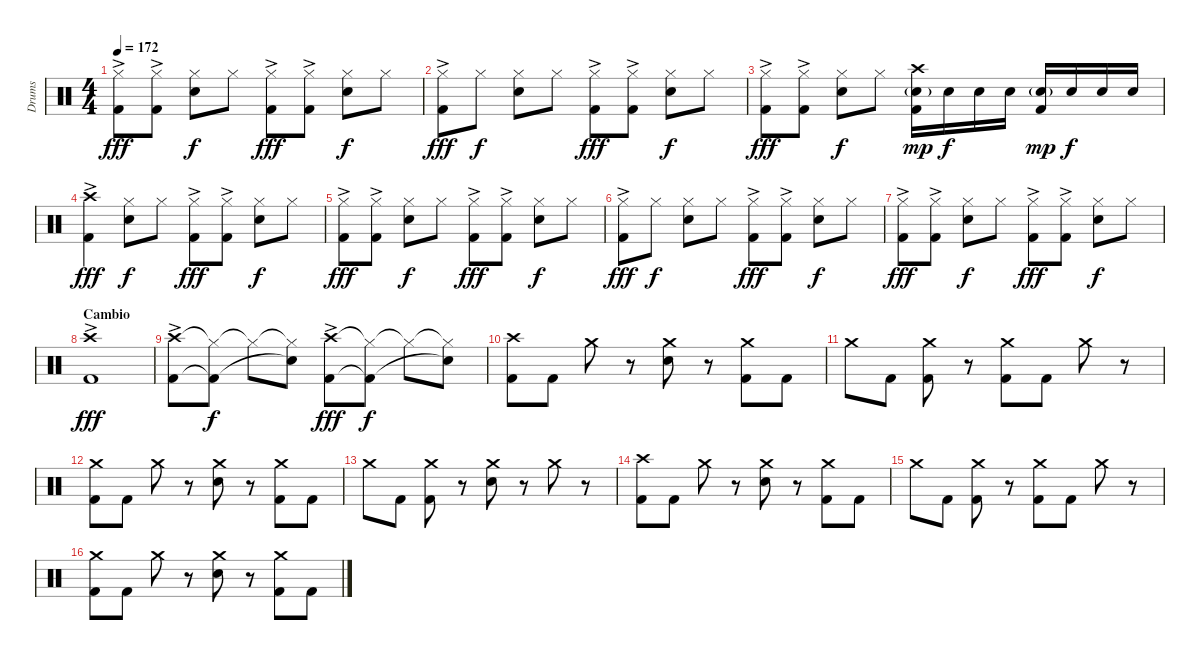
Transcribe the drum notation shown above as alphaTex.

\track ("Drums" "Drums") {instrument percussion}
\staff {score}
\articulation defaults
\ts (4 4)
\tempo 172
\clef neutral
\ks c
("Hi-Hat (closed)" "Kick (hit) 2"{ac}).8{dy fff} ("Hi-Hat (closed)" "Kick (hit) 2"{ac}).8 ("Hi-Hat (closed)" "Electric Snare (hit)").8{dy f} "Hi-Hat (closed)".8 ("Hi-Hat (closed)" "Kick (hit) 2"{ac}).8{dy fff} ("Hi-Hat (closed)" "Kick (hit) 2"{ac}).8 ("Hi-Hat (closed)" "Electric Snare (hit)").8{dy f} "Hi-Hat (closed)".8 |
("Hi-Hat (closed)" "Kick (hit) 2"{ac}).8{dy fff} "Hi-Hat (closed)".8{dy f} ("Hi-Hat (closed)" "Electric Snare (hit)").8 "Hi-Hat (closed)".8 ("Hi-Hat (closed)" "Kick (hit) 2"{ac}).8{dy fff} ("Hi-Hat (closed)" "Kick (hit) 2"{ac}).8 ("Hi-Hat (closed)" "Electric Snare (hit)").8{dy f} "Hi-Hat (closed)".8 |
("Hi-Hat (closed)" "Kick (hit) 2"{ac}).8{dy fff} ("Hi-Hat (closed)" "Kick (hit) 2"{ac}).8 ("Hi-Hat (closed)" "Electric Snare (hit)").8{dy f} "Hi-Hat (closed)".8 ("Crash high (hit)" "Electric Snare (hit)"{g} "Kick (hit) 2").16{dy mp} "Electric Snare (hit)".16{dy f} "Electric Snare (hit)".16 "Electric Snare (hit)".16 ("Electric Snare (hit)"{g} "Kick (hit) 2").16{dy mp} "Electric Snare (hit)".16{dy f} "Electric Snare (hit)".16 "Electric Snare (hit)".16 |
("Crash high (hit)" "Kick (hit) 2"{ac}).4{dy fff} ("Hi-Hat (closed)" "Electric Snare (hit)").8{dy f} "Hi-Hat (closed)".8 ("Hi-Hat (closed)" "Kick (hit) 2"{ac}).8{dy fff} ("Hi-Hat (closed)" "Kick (hit) 2"{ac}).8 ("Hi-Hat (closed)" "Electric Snare (hit)").8{dy f} "Hi-Hat (closed)".8 |
("Hi-Hat (closed)" "Kick (hit) 2"{ac}).8{dy fff} ("Hi-Hat (closed)" "Kick (hit) 2"{ac}).8 ("Hi-Hat (closed)" "Electric Snare (hit)").8{dy f} "Hi-Hat (closed)".8 ("Hi-Hat (closed)" "Kick (hit) 2"{ac}).8{dy fff} ("Hi-Hat (closed)" "Kick (hit) 2"{ac}).8 ("Hi-Hat (closed)" "Electric Snare (hit)").8{dy f} "Hi-Hat (closed)".8 |
("Hi-Hat (closed)" "Kick (hit) 2"{ac}).8{dy fff} "Hi-Hat (closed)".8{dy f} ("Hi-Hat (closed)" "Electric Snare (hit)").8 "Hi-Hat (closed)".8 ("Hi-Hat (closed)" "Kick (hit) 2"{ac}).8{dy fff} ("Hi-Hat (closed)" "Kick (hit) 2"{ac}).8 ("Hi-Hat (closed)" "Electric Snare (hit)").8{dy f} "Hi-Hat (closed)".8 |
("Hi-Hat (closed)" "Kick (hit) 2"{ac}).8{dy fff} ("Hi-Hat (closed)" "Kick (hit) 2"{ac}).8 ("Hi-Hat (closed)" "Electric Snare (hit)").8{dy f} "Hi-Hat (closed)".8 ("Hi-Hat (closed)" "Kick (hit) 2"{ac}).8{dy fff} ("Hi-Hat (closed)" "Kick (hit) 2"{ac}).8 ("Hi-Hat (closed)" "Electric Snare (hit)").8{dy f} "Hi-Hat (closed)".8 |
\section ("" "Cambio")
("Crash high (hit)" "Kick (hit) 2"{ac}).1{dy fff} |
("Crash high (hit)" "Kick (hit) 2"{ac}).8 ("Hi-Hat (closed)"{t} "Kick (hit) 2"{t}).8{dy f} "Hi-Hat (closed)"{t}.8 ("Hi-Hat (closed)"{t} "Snare (hit)"{t}).8 ("Crash high (hit)" "Kick (hit) 2"{ac}).8{dy fff} ("Hi-Hat (closed)"{t} "Kick (hit) 2"{t}).8{dy f} "Hi-Hat (closed)"{t}.8 ("Hi-Hat (closed)"{t} "Snare (hit)"{t}).8 |
("Crash high (hit)" "Kick (hit) 2").8 "Kick (hit) 2".8 "Crash medium (hit)".8 r.8 ("Crash medium (hit)" "Electric Snare (hit)").8 r.8 ("Crash medium (hit)" "Kick (hit) 2").8 "Kick (hit) 2".8 |
"Crash medium (hit)".8 "Kick (hit) 2".8 ("Crash medium (hit)" "Kick (hit) 2").8 r.8 ("Crash medium (hit)" "Kick (hit) 2").8 "Kick (hit) 2".8 "Crash medium (hit)".8 r.8 |
("Crash medium (hit)" "Kick (hit) 2").8 "Kick (hit) 2".8 "Crash medium (hit)".8 r.8 ("Crash medium (hit)" "Electric Snare (hit)").8 r.8 ("Crash medium (hit)" "Kick (hit) 2").8 "Kick (hit) 2".8 |
"Crash medium (hit)".8 "Kick (hit) 2".8 ("Crash medium (hit)" "Kick (hit) 2").8 r.8 ("Crash medium (hit)" "Electric Snare (hit)").8 r.8 "Crash medium (hit)".8 r.8 |
("Crash high (hit)" "Kick (hit) 2").8 "Kick (hit) 2".8 "Crash medium (hit)".8 r.8 ("Crash medium (hit)" "Electric Snare (hit)").8 r.8 ("Crash medium (hit)" "Kick (hit) 2").8 "Kick (hit) 2".8 |
"Crash medium (hit)".8 "Kick (hit) 2".8 ("Crash medium (hit)" "Kick (hit) 2").8 r.8 ("Crash medium (hit)" "Kick (hit) 2").8 "Kick (hit) 2".8 "Crash medium (hit)".8 r.8 |
("Crash medium (hit)" "Kick (hit) 2").8 "Kick (hit) 2".8 "Crash medium (hit)".8 r.8 ("Crash medium (hit)" "Electric Snare (hit)").8 r.8 ("Crash medium (hit)" "Kick (hit) 2").8 "Kick (hit) 2".8
